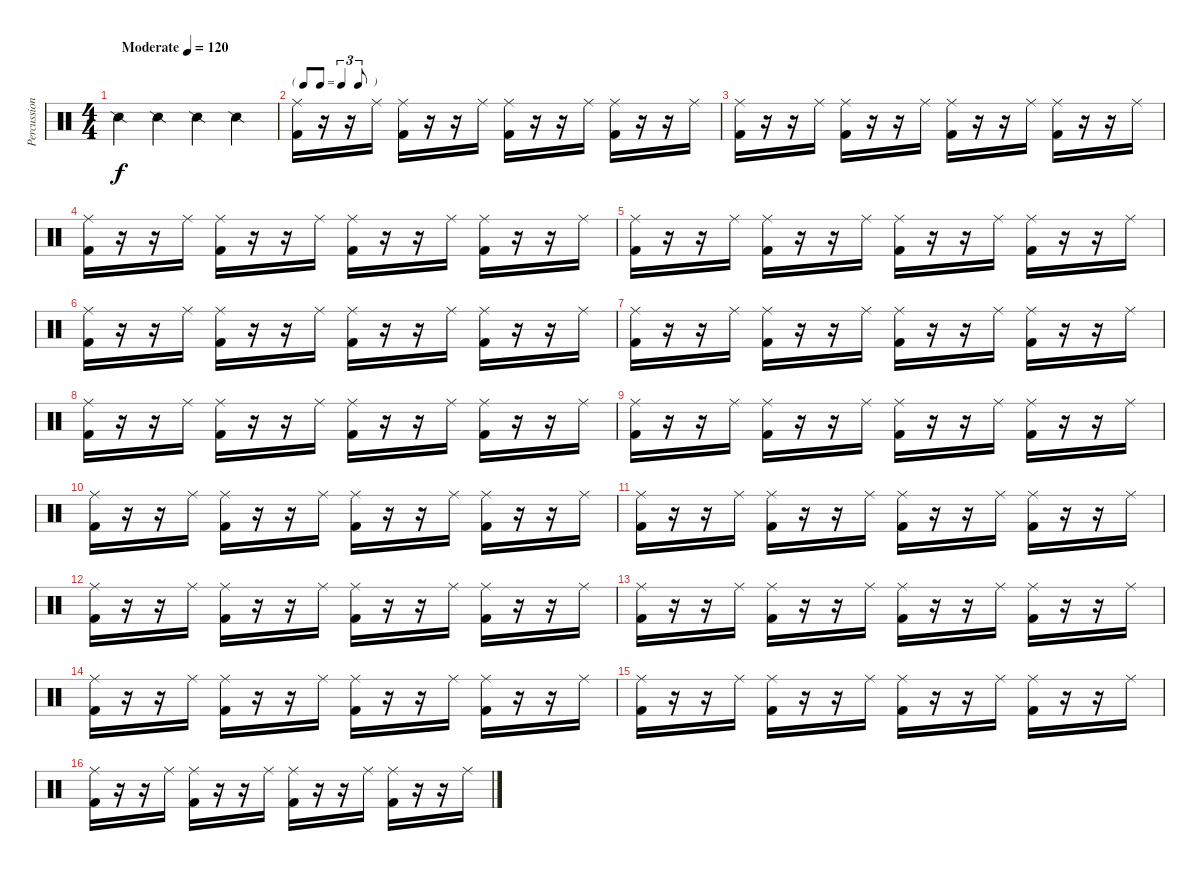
\track ("Percussions" "Percussion") {instrument percussion}
\staff {score}
\articulation defaults
\ts (4 4)
\tempo (120 "Moderate")
\clef neutral
\ks c "Snare (side stick) 2".4{dy f} "Snare (side stick) 2".4 "Snare (side stick) 2".4 "Snare (side stick) 2".4
|
\tf triplet8th
("Ride (middle)" "Kick (hit) 2").16 r.16 r.16 "Ride (middle)".16 ("Ride (middle)" "Kick (hit) 2").16 r.16 r.16 "Ride (middle)".16 ("Ride (middle)" "Kick (hit) 2").16 r.16 r.16 "Ride (middle)".16 ("Ride (middle)" "Kick (hit) 2").16 r.16 r.16 "Ride (middle)".16 |
("Ride (middle)" "Kick (hit) 2").16 r.16 r.16 "Ride (middle)".16 ("Ride (middle)" "Kick (hit) 2").16 r.16 r.16 "Ride (middle)".16 ("Ride (middle)" "Kick (hit) 2").16 r.16 r.16 "Ride (middle)".16 ("Ride (middle)" "Kick (hit) 2").16 r.16 r.16 "Ride (middle)".16 |
("Ride (middle)" "Kick (hit) 2").16 r.16 r.16 "Ride (middle)".16 ("Ride (middle)" "Kick (hit) 2").16 r.16 r.16 "Ride (middle)".16 ("Ride (middle)" "Kick (hit) 2").16 r.16 r.16 "Ride (middle)".16 ("Ride (middle)" "Kick (hit) 2").16 r.16 r.16 "Ride (middle)".16 |
("Ride (middle)" "Kick (hit) 2").16 r.16 r.16 "Ride (middle)".16 ("Ride (middle)" "Kick (hit) 2").16 r.16 r.16 "Ride (middle)".16 ("Ride (middle)" "Kick (hit) 2").16 r.16 r.16 "Ride (middle)".16 ("Ride (middle)" "Kick (hit) 2").16 r.16 r.16 "Ride (middle)".16 |
("Ride (middle)" "Kick (hit) 2").16 r.16 r.16 "Ride (middle)".16 ("Ride (middle)" "Kick (hit) 2").16 r.16 r.16 "Ride (middle)".16 ("Ride (middle)" "Kick (hit) 2").16 r.16 r.16 "Ride (middle)".16 ("Ride (middle)" "Kick (hit) 2").16 r.16 r.16 "Ride (middle)".16 |
("Ride (middle)" "Kick (hit) 2").16 r.16 r.16 "Ride (middle)".16 ("Ride (middle)" "Kick (hit) 2").16 r.16 r.16 "Ride (middle)".16 ("Ride (middle)" "Kick (hit) 2").16 r.16 r.16 "Ride (middle)".16 ("Ride (middle)" "Kick (hit) 2").16 r.16 r.16 "Ride (middle)".16 |
("Ride (middle)" "Kick (hit) 2").16 r.16 r.16 "Ride (middle)".16 ("Ride (middle)" "Kick (hit) 2").16 r.16 r.16 "Ride (middle)".16 ("Ride (middle)" "Kick (hit) 2").16 r.16 r.16 "Ride (middle)".16 ("Ride (middle)" "Kick (hit) 2").16 r.16 r.16 "Ride (middle)".16 |
("Ride (middle)" "Kick (hit) 2").16 r.16 r.16 "Ride (middle)".16 ("Ride (middle)" "Kick (hit) 2").16 r.16 r.16 "Ride (middle)".16 ("Ride (middle)" "Kick (hit) 2").16 r.16 r.16 "Ride (middle)".16 ("Ride (middle)" "Kick (hit) 2").16 r.16 r.16 "Ride (middle)".16 |
("Ride (middle)" "Kick (hit) 2").16 r.16 r.16 "Ride (middle)".16 ("Ride (middle)" "Kick (hit) 2").16 r.16 r.16 "Ride (middle)".16 ("Ride (middle)" "Kick (hit) 2").16 r.16 r.16 "Ride (middle)".16 ("Ride (middle)" "Kick (hit) 2").16 r.16 r.16 "Ride (middle)".16 |
("Ride (middle)" "Kick (hit) 2").16 r.16 r.16 "Ride (middle)".16 ("Ride (middle)" "Kick (hit) 2").16 r.16 r.16 "Ride (middle)".16 ("Ride (middle)" "Kick (hit) 2").16 r.16 r.16 "Ride (middle)".16 ("Ride (middle)" "Kick (hit) 2").16 r.16 r.16 "Ride (middle)".16 |
("Ride (middle)" "Kick (hit) 2").16 r.16 r.16 "Ride (middle)".16 ("Ride (middle)" "Kick (hit) 2").16 r.16 r.16 "Ride (middle)".16 ("Ride (middle)" "Kick (hit) 2").16 r.16 r.16 "Ride (middle)".16 ("Ride (middle)" "Kick (hit) 2").16 r.16 r.16 "Ride (middle)".16 |
("Ride (middle)" "Kick (hit) 2").16 r.16 r.16 "Ride (middle)".16 ("Ride (middle)" "Kick (hit) 2").16 r.16 r.16 "Ride (middle)".16 ("Ride (middle)" "Kick (hit) 2").16 r.16 r.16 "Ride (middle)".16 ("Ride (middle)" "Kick (hit) 2").16 r.16 r.16 "Ride (middle)".16 |
("Ride (middle)" "Kick (hit) 2").16 r.16 r.16 "Ride (middle)".16 ("Ride (middle)" "Kick (hit) 2").16 r.16 r.16 "Ride (middle)".16 ("Ride (middle)" "Kick (hit) 2").16 r.16 r.16 "Ride (middle)".16 ("Ride (middle)" "Kick (hit) 2").16 r.16 r.16 "Ride (middle)".16 |
("Ride (middle)" "Kick (hit) 2").16 r.16 r.16 "Ride (middle)".16 ("Ride (middle)" "Kick (hit) 2").16 r.16 r.16 "Ride (middle)".16 ("Ride (middle)" "Kick (hit) 2").16 r.16 r.16 "Ride (middle)".16 ("Ride (middle)" "Kick (hit) 2").16 r.16 r.16 "Ride (middle)".16 |
("Ride (middle)" "Kick (hit) 2").16 r.16 r.16 "Ride (middle)".16 ("Ride (middle)" "Kick (hit) 2").16 r.16 r.16 "Ride (middle)".16 ("Ride (middle)" "Kick (hit) 2").16 r.16 r.16 "Ride (middle)".16 ("Ride (middle)" "Kick (hit) 2").16 r.16 r.16 "Ride (middle)".16
